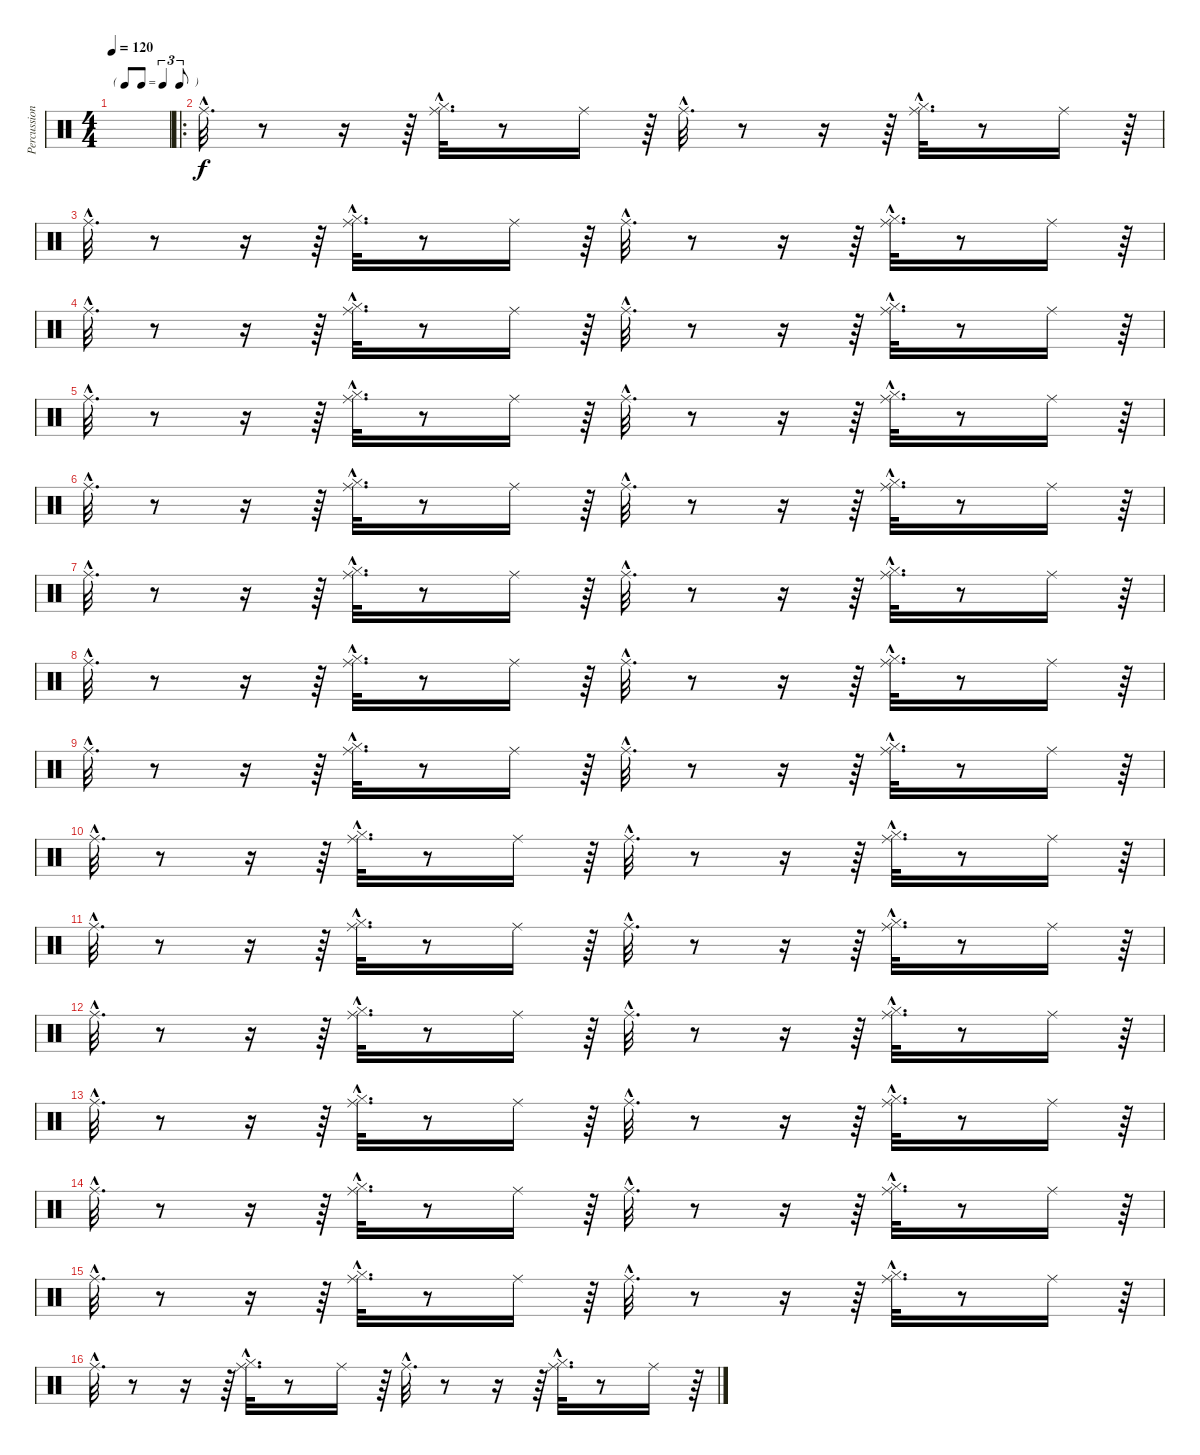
\track ("Percussions" "Percussion") {instrument percussion}
\staff {score}
\articulation defaults
\ts (4 4)
\tf triplet8th
\tempo 120
\clef neutral
\ks c
|
\ro "Ride (middle)"{hac}.32{d}
r.8 r.16 r.64 ("Hi-Hat (closed)"{hac} "Ride (middle)"{hac}).32{d} r.8 "Ride (middle)".16 r.64 "Ride (middle)"{hac}.32{d} r.8 r.16 r.64 ("Hi-Hat (closed)"{hac} "Ride (middle)"{hac}).32{d} r.8 "Ride (middle)".16 r.64 |
"Ride (middle)"{hac}.32{d} r.8 r.16 r.64 ("Hi-Hat (closed)"{hac} "Ride (middle)"{hac}).32{d} r.8 "Ride (middle)".16 r.64 "Ride (middle)"{hac}.32{d} r.8 r.16 r.64 ("Hi-Hat (closed)"{hac} "Ride (middle)"{hac}).32{d} r.8 "Ride (middle)".16 r.64 |
"Ride (middle)"{hac}.32{d} r.8 r.16 r.64 ("Hi-Hat (closed)"{hac} "Ride (middle)"{hac}).32{d} r.8 "Ride (middle)".16 r.64 "Ride (middle)"{hac}.32{d} r.8 r.16 r.64 ("Hi-Hat (closed)"{hac} "Ride (middle)"{hac}).32{d} r.8 "Ride (middle)".16 r.64 |
"Ride (middle)"{hac}.32{d} r.8 r.16 r.64 ("Hi-Hat (closed)"{hac} "Ride (middle)"{hac}).32{d} r.8 "Ride (middle)".16 r.64 "Ride (middle)"{hac}.32{d} r.8 r.16 r.64 ("Hi-Hat (closed)"{hac} "Ride (middle)"{hac}).32{d} r.8 "Ride (middle)".16 r.64 |
"Ride (middle)"{hac}.32{d} r.8 r.16 r.64 ("Hi-Hat (closed)"{hac} "Ride (middle)"{hac}).32{d} r.8 "Ride (middle)".16 r.64 "Ride (middle)"{hac}.32{d} r.8 r.16 r.64 ("Hi-Hat (closed)"{hac} "Ride (middle)"{hac}).32{d} r.8 "Ride (middle)".16 r.64 |
"Ride (middle)"{hac}.32{d} r.8 r.16 r.64 ("Hi-Hat (closed)"{hac} "Ride (middle)"{hac}).32{d} r.8 "Ride (middle)".16 r.64 "Ride (middle)"{hac}.32{d} r.8 r.16 r.64 ("Hi-Hat (closed)"{hac} "Ride (middle)"{hac}).32{d} r.8 "Ride (middle)".16 r.64 |
"Ride (middle)"{hac}.32{d} r.8 r.16 r.64 ("Hi-Hat (closed)"{hac} "Ride (middle)"{hac}).32{d} r.8 "Ride (middle)".16 r.64 "Ride (middle)"{hac}.32{d} r.8 r.16 r.64 ("Hi-Hat (closed)"{hac} "Ride (middle)"{hac}).32{d} r.8 "Ride (middle)".16 r.64 |
"Ride (middle)"{hac}.32{d} r.8 r.16 r.64 ("Hi-Hat (closed)"{hac} "Ride (middle)"{hac}).32{d} r.8 "Ride (middle)".16 r.64 "Ride (middle)"{hac}.32{d} r.8 r.16 r.64 ("Hi-Hat (closed)"{hac} "Ride (middle)"{hac}).32{d} r.8 "Ride (middle)".16 r.64 |
"Ride (middle)"{hac}.32{d} r.8 r.16 r.64 ("Hi-Hat (closed)"{hac} "Ride (middle)"{hac}).32{d} r.8 "Ride (middle)".16 r.64 "Ride (middle)"{hac}.32{d} r.8 r.16 r.64 ("Hi-Hat (closed)"{hac} "Ride (middle)"{hac}).32{d} r.8 "Ride (middle)".16 r.64 |
"Ride (middle)"{hac}.32{d} r.8 r.16 r.64 ("Hi-Hat (closed)"{hac} "Ride (middle)"{hac}).32{d} r.8 "Ride (middle)".16 r.64 "Ride (middle)"{hac}.32{d} r.8 r.16 r.64 ("Hi-Hat (closed)"{hac} "Ride (middle)"{hac}).32{d} r.8 "Ride (middle)".16 r.64 |
"Ride (middle)"{hac}.32{d} r.8 r.16 r.64 ("Hi-Hat (closed)"{hac} "Ride (middle)"{hac}).32{d} r.8 "Ride (middle)".16 r.64 "Ride (middle)"{hac}.32{d} r.8 r.16 r.64 ("Hi-Hat (closed)"{hac} "Ride (middle)"{hac}).32{d} r.8 "Ride (middle)".16 r.64 |
"Ride (middle)"{hac}.32{d} r.8 r.16 r.64 ("Hi-Hat (closed)"{hac} "Ride (middle)"{hac}).32{d} r.8 "Ride (middle)".16 r.64 "Ride (middle)"{hac}.32{d} r.8 r.16 r.64 ("Hi-Hat (closed)"{hac} "Ride (middle)"{hac}).32{d} r.8 "Ride (middle)".16 r.64 |
"Ride (middle)"{hac}.32{d} r.8 r.16 r.64 ("Hi-Hat (closed)"{hac} "Ride (middle)"{hac}).32{d} r.8 "Ride (middle)".16 r.64 "Ride (middle)"{hac}.32{d} r.8 r.16 r.64 ("Hi-Hat (closed)"{hac} "Ride (middle)"{hac}).32{d} r.8 "Ride (middle)".16 r.64 |
"Ride (middle)"{hac}.32{d} r.8 r.16 r.64 ("Hi-Hat (closed)"{hac} "Ride (middle)"{hac}).32{d} r.8 "Ride (middle)".16 r.64 "Ride (middle)"{hac}.32{d} r.8 r.16 r.64 ("Hi-Hat (closed)"{hac} "Ride (middle)"{hac}).32{d} r.8 "Ride (middle)".16 r.64 |
"Ride (middle)"{hac}.32{d} r.8 r.16 r.64 ("Hi-Hat (closed)"{hac} "Ride (middle)"{hac}).32{d} r.8 "Ride (middle)".16 r.64 "Ride (middle)"{hac}.32{d} r.8 r.16 r.64 ("Hi-Hat (closed)"{hac} "Ride (middle)"{hac}).32{d} r.8 "Ride (middle)".16 r.64
